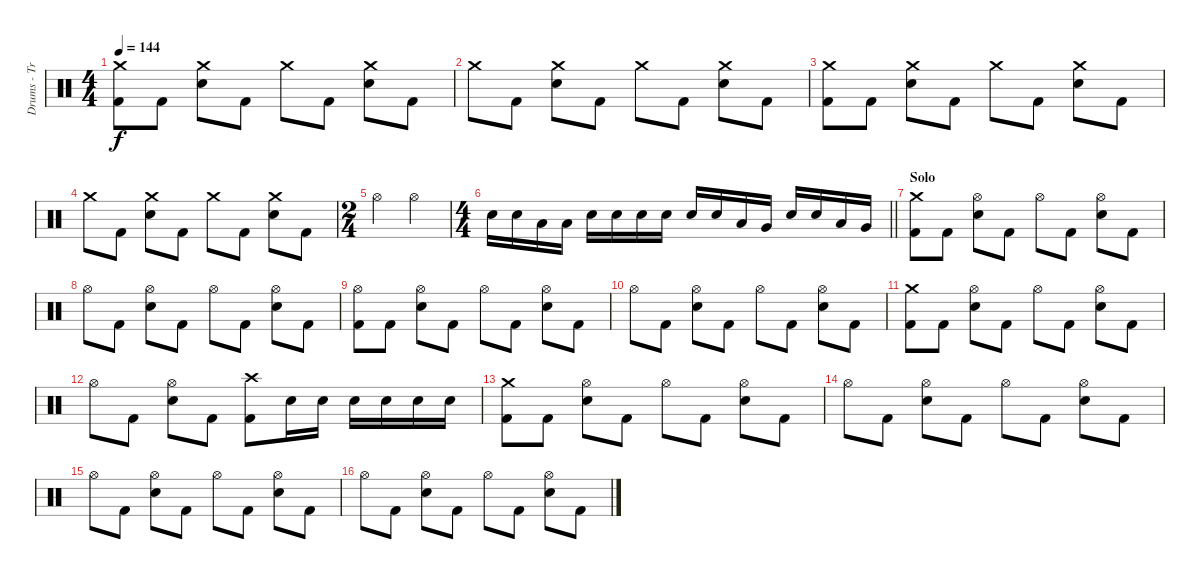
\track ("Drums - Tre Cool" "Drums - Tr") {instrument percussion}
\staff {score}
\articulation defaults
\ts (4 4)
\tempo 144
\clef neutral
\ks c
("Crash medium (hit)" "Kick (hit) 2").8{dy f} "Kick (hit) 2".8 ("Crash medium (hit)" "Snare (hit) 2").8 "Kick (hit) 2".8 "Crash medium (hit)".8 "Kick (hit) 2".8 ("Crash medium (hit)" "Snare (hit) 2").8 "Kick (hit) 2".8 |
"Crash medium (hit)".8 "Kick (hit) 2".8 ("Crash medium (hit)" "Snare (hit) 2").8 "Kick (hit) 2".8 "Crash medium (hit)".8 "Kick (hit) 2".8 ("Crash medium (hit)" "Snare (hit) 2").8 "Kick (hit) 2".8 |
("Crash medium (hit)" "Kick (hit) 2").8 "Kick (hit) 2".8 ("Crash medium (hit)" "Snare (hit) 2").8 "Kick (hit) 2".8 "Crash medium (hit)".8 "Kick (hit) 2".8 ("Crash medium (hit)" "Snare (hit) 2").8 "Kick (hit) 2".8 |
"Crash medium (hit)".8 "Kick (hit) 2".8 ("Crash medium (hit)" "Snare (hit) 2").8 "Kick (hit) 2".8 "Crash medium (hit)".8 "Kick (hit) 2".8 ("Crash medium (hit)" "Snare (hit) 2").8 "Kick (hit) 2".8 |
\ts (2 4)
"Hi-Hat (open)".4 "Hi-Hat (open)".4 |
\ts (4 4)
\barLineRight lightlight "Snare (hit) 2".16 "Snare (hit) 2".16 "Low Floor Tom (hit)".16 "Low Floor Tom (hit)".16 "Snare (hit) 2".16 "Snare (hit) 2".16 "Snare (hit) 2".16 "Snare (hit) 2".16 "Snare (hit) 2".16 "Snare (hit) 2".16 "Low Floor Tom (hit)".16 "Very Low Tom (hit)".16 "Snare (hit) 2".16 "Snare (hit) 2".16 "Low Floor Tom (hit)".16 "Very Low Tom (hit)".16
|
\section ("" "Solo")
("Crash medium (hit)" "Kick (hit) 2").8 "Kick (hit) 2".8 ("Hi-Hat (open)" "Snare (hit) 2").8 "Kick (hit) 2".8 "Hi-Hat (open)".8 "Kick (hit) 2".8 ("Hi-Hat (open)" "Snare (hit) 2").8 "Kick (hit) 2".8 |
"Hi-Hat (open)".8 "Kick (hit) 2".8 ("Hi-Hat (open)" "Snare (hit) 2").8 "Kick (hit) 2".8 "Hi-Hat (open)".8 "Kick (hit) 2".8 ("Hi-Hat (open)" "Snare (hit) 2").8 "Kick (hit) 2".8 |
("Hi-Hat (open)" "Kick (hit) 2").8 "Kick (hit) 2".8 ("Hi-Hat (open)" "Snare (hit) 2").8 "Kick (hit) 2".8 "Hi-Hat (open)".8 "Kick (hit) 2".8 ("Hi-Hat (open)" "Snare (hit) 2").8 "Kick (hit) 2".8 |
"Hi-Hat (open)".8 "Kick (hit) 2".8 ("Hi-Hat (open)" "Snare (hit) 2").8 "Kick (hit) 2".8 "Hi-Hat (open)".8 "Kick (hit) 2".8 ("Hi-Hat (open)" "Snare (hit) 2").8 "Kick (hit) 2".8 |
("Crash medium (hit)" "Kick (hit) 2").8 "Kick (hit) 2".8 ("Hi-Hat (open)" "Snare (hit) 2").8 "Kick (hit) 2".8 "Hi-Hat (open)".8 "Kick (hit) 2".8 ("Hi-Hat (open)" "Snare (hit) 2").8 "Kick (hit) 2".8 |
"Hi-Hat (open)".8 "Kick (hit) 2".8 ("Hi-Hat (open)" "Snare (hit) 2").8 "Kick (hit) 2".8 ("Crash high (hit)" "Kick (hit) 2").8 "Snare (hit) 2".16 "Snare (hit) 2".16 "Snare (hit) 2".16 "Snare (hit) 2".16 "Snare (hit) 2".16 "Snare (hit) 2".16 |
("Crash medium (hit)" "Kick (hit) 2").8 "Kick (hit) 2".8 ("Hi-Hat (open)" "Snare (hit) 2").8 "Kick (hit) 2".8 "Hi-Hat (open)".8 "Kick (hit) 2".8 ("Hi-Hat (open)" "Snare (hit) 2").8 "Kick (hit) 2".8 |
"Hi-Hat (open)".8 "Kick (hit) 2".8 ("Hi-Hat (open)" "Snare (hit) 2").8 "Kick (hit) 2".8 "Hi-Hat (open)".8 "Kick (hit) 2".8 ("Hi-Hat (open)" "Snare (hit) 2").8 "Kick (hit) 2".8 |
"Hi-Hat (open)".8 "Kick (hit) 2".8 ("Hi-Hat (open)" "Snare (hit) 2").8 "Kick (hit) 2".8 "Hi-Hat (open)".8 "Kick (hit) 2".8 ("Hi-Hat (open)" "Snare (hit) 2").8 "Kick (hit) 2".8 |
"Hi-Hat (open)".8 "Kick (hit) 2".8 ("Hi-Hat (open)" "Snare (hit) 2").8 "Kick (hit) 2".8 "Hi-Hat (open)".8 "Kick (hit) 2".8 ("Hi-Hat (open)" "Snare (hit) 2").8 "Kick (hit) 2".8
